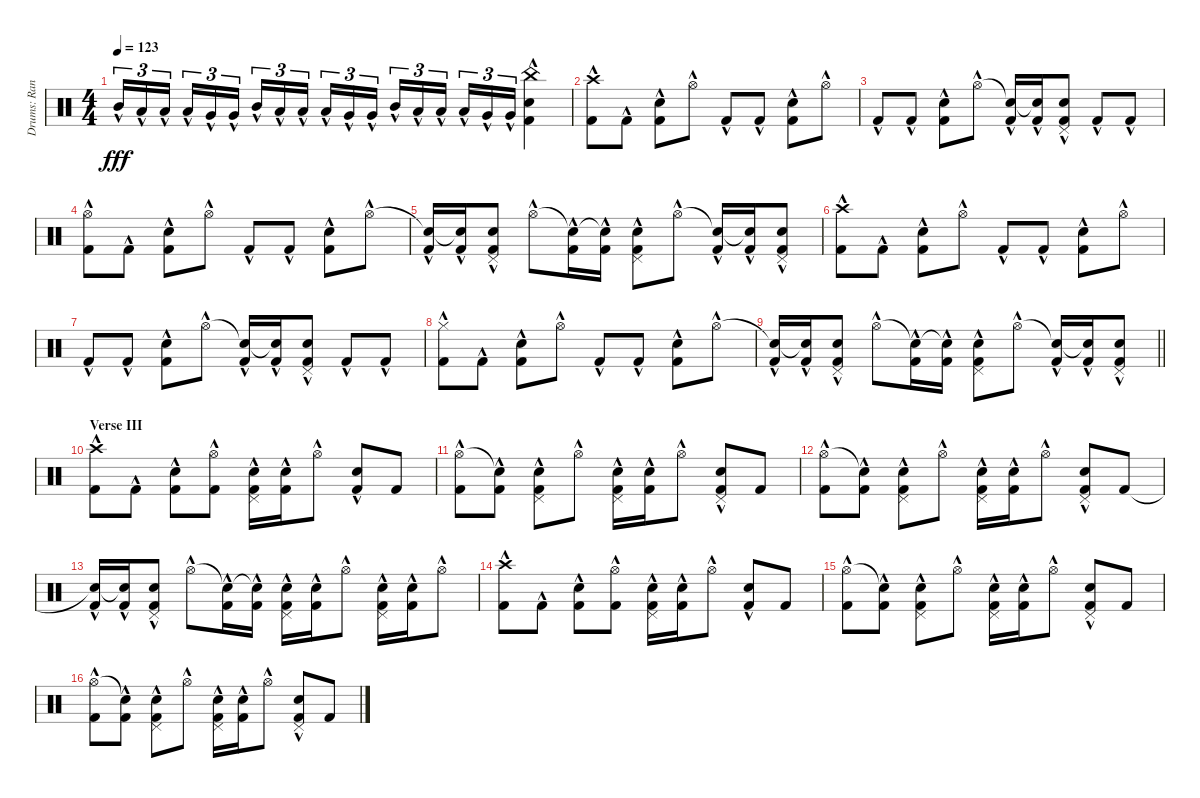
\track ("Drums: Randy" "Drums: Ran") {instrument percussion}
\staff {score}
\articulation defaults
\ts (4 4)
\tempo 123
\clef neutral
\ks c "Mid Tom (hit)"{hac}.16{tu (3 2) dy fff} "Low Tom (hit)"{hac}.16{tu (3 2)} "Low Tom (hit)"{hac}.16{tu (3 2) beam splitsecondary} "Low Tom (hit)"{hac}.16{tu (3 2)} "Very Low Tom (hit)"{hac}.16{tu (3 2)} "Very Low Tom (hit)"{hac}.16{tu (3 2)} "Mid Tom (hit)"{hac}.16{tu (3 2)} "Low Tom (hit)"{hac}.16{tu (3 2)} "Low Tom (hit)"{hac}.16{tu (3 2) beam splitsecondary} "Low Tom (hit)"{hac}.16{tu (3 2)} "Very Low Tom (hit)"{hac}.16{tu (3 2)} "Very Low Tom (hit)"{hac}.16{tu (3 2)} "Mid Tom (hit)"{hac}.16{tu (3 2)} "Low Tom (hit)"{hac}.16{tu (3 2)} "Low Tom (hit)"{hac}.16{tu (3 2) beam splitsecondary} "Low Tom (hit)"{hac}.16{tu (3 2)} "Very Low Tom (hit)"{hac}.16{tu (3 2)} "Very Low Tom (hit)"{hac}.16{tu (3 2)}
("China (hit)" "Snare (hit) 2"{hac} "Kick (hit) 2"{hac}).4 |
("Crash high (hit)"{hac} "Kick (hit) 2"{hac}).8 "Kick (hit) 2"{hac}.8 ("Snare (hit) 2"{hac} "Kick (hit) 2"{hac}).8 "Hi-Hat (open)"{hac}.8 "Kick (hit) 2"{hac}.8 "Kick (hit) 2"{hac}.8 ("Snare (hit) 2"{hac} "Kick (hit) 2"{hac}).8 "Hi-Hat (open)"{hac}.8 |
"Kick (hit) 2"{hac}.8 "Kick (hit) 2"{hac}.8 ("Snare (hit) 2"{hac} "Kick (hit) 2"{hac}).8 "Hi-Hat (open)"{hac}.8 ("Snare (hit)"{t} "Kick (hit) 2"{hac}).16 ("Snare (hit)"{t} "Kick (hit) 2"{hac}).16 ("Pedal Hi-Hat (hit)"{hac} "Snare (hit) 2"{hac} "Kick (hit) 2"{hac}).8 "Kick (hit) 2"{hac}.8 "Kick (hit) 2"{hac}.8 |
("Hi-Hat (open)" "Kick (hit) 2"{hac}).8 "Kick (hit) 2"{hac}.8 ("Snare (hit) 2"{hac} "Kick (hit) 2"{hac}).8 "Hi-Hat (open)"{hac}.8 "Kick (hit) 2"{hac}.8 "Kick (hit) 2"{hac}.8 ("Snare (hit) 2"{hac} "Kick (hit) 2"{hac}).8 "Hi-Hat (open)"{hac}.8 |
("Snare (hit)"{t} "Kick (hit) 2"{hac}).16 ("Snare (hit)"{t} "Kick (hit) 2"{hac}).16 ("Pedal Hi-Hat (hit)"{hac} "Snare (hit) 2"{hac} "Kick (hit) 2"{hac}).8 "Hi-Hat (open)"{hac}.8 ("Snare (hit)"{t} "Kick (hit) 2"{hac}).16 ("Snare (hit)"{t} "Kick (hit) 2"{hac}).16 ("Pedal Hi-Hat (hit)"{hac} "Snare (hit) 2"{hac} "Kick (hit) 2"{hac}).8 "Hi-Hat (open)"{hac}.8 ("Snare (hit)"{t} "Kick (hit) 2"{hac}).16 ("Snare (hit)"{t} "Kick (hit) 2"{hac}).16 ("Pedal Hi-Hat (hit)"{hac} "Snare (hit) 2"{hac} "Kick (hit) 2"{hac}).8 |
("Crash high (hit)"{hac} "Kick (hit) 2"{hac}).8 "Kick (hit) 2"{hac}.8 ("Snare (hit) 2"{hac} "Kick (hit) 2"{hac}).8 "Hi-Hat (open)"{hac}.8 "Kick (hit) 2"{hac}.8 "Kick (hit) 2"{hac}.8 ("Snare (hit) 2"{hac} "Kick (hit) 2"{hac}).8 "Hi-Hat (open)"{hac}.8 |
"Kick (hit) 2"{hac}.8 "Kick (hit) 2"{hac}.8 ("Snare (hit) 2"{hac} "Kick (hit) 2"{hac}).8 "Hi-Hat (open)"{hac}.8 ("Snare (hit)"{t} "Kick (hit) 2"{hac}).16 ("Snare (hit)"{t} "Kick (hit) 2"{hac}).16 ("Pedal Hi-Hat (hit)"{hac} "Snare (hit) 2"{hac} "Kick (hit) 2"{hac}).8 "Kick (hit) 2"{hac}.8 "Kick (hit) 2"{hac}.8 |
("Hi-Hat (closed)"{hac} "Kick (hit) 2"{hac}).8 "Kick (hit) 2"{hac}.8 ("Snare (hit) 2"{hac} "Kick (hit) 2"{hac}).8 "Hi-Hat (open)"{hac}.8 "Kick (hit) 2"{hac}.8 "Kick (hit) 2"{hac}.8 ("Snare (hit) 2"{hac} "Kick (hit) 2"{hac}).8 "Hi-Hat (open)"{hac}.8 |
\barLineRight lightlight
("Snare (hit)"{t} "Kick (hit) 2"{hac}).16 ("Snare (hit)"{t} "Kick (hit) 2"{hac}).16 ("Pedal Hi-Hat (hit)"{hac} "Snare (hit) 2"{hac} "Kick (hit) 2"{hac}).8 "Hi-Hat (open)"{hac}.8 ("Snare (hit)"{t} "Kick (hit) 2"{hac}).16 ("Snare (hit)"{t} "Kick (hit) 2"{hac}).16 ("Pedal Hi-Hat (hit)"{hac} "Snare (hit) 2"{hac} "Kick (hit) 2"{hac}).8 "Hi-Hat (open)"{hac}.8 ("Snare (hit)"{t} "Kick (hit) 2"{hac}).16 ("Snare (hit)"{t} "Kick (hit) 2"{hac}).16 ("Pedal Hi-Hat (hit)"{hac} "Snare (hit) 2"{hac} "Kick (hit) 2"{hac}).8 |
\section ("" "Verse III")
("Crash high (hit)"{hac} "Kick (hit) 2"{hac}).8 "Kick (hit) 2"{hac}.8 ("Snare (hit) 2"{hac} "Kick (hit) 2"{hac}).8 ("Hi-Hat (open)"{hac} "Kick (hit) 2").8 ("Pedal Hi-Hat (hit)" "Snare (hit) 2"{hac} "Kick (hit) 2"{hac}).16 ("Snare (hit) 2"{hac} "Kick (hit) 2"{hac}).16 "Hi-Hat (open)"{hac}.8 ("Snare (hit) 2"{hac} "Kick (hit) 2"{hac}).8 "Kick (hit) 2".8 |
("Hi-Hat (open)" "Kick (hit) 2"{hac}).8 ("Snare (hit)"{t} "Kick (hit) 2"{hac}).8 ("Pedal Hi-Hat (hit)" "Snare (hit) 2"{hac} "Kick (hit) 2"{hac}).8 "Hi-Hat (open)"{hac}.8 ("Pedal Hi-Hat (hit)" "Snare (hit) 2"{hac} "Kick (hit) 2"{hac}).16 ("Snare (hit) 2"{hac} "Kick (hit) 2"{hac}).16 "Hi-Hat (open)"{hac}.8 ("Pedal Hi-Hat (hit)" "Snare (hit) 2"{hac} "Kick (hit) 2"{hac}).8 "Kick (hit) 2".8 |
("Hi-Hat (open)" "Kick (hit) 2"{hac}).8 ("Snare (hit)"{t} "Kick (hit) 2"{hac}).8 ("Pedal Hi-Hat (hit)" "Snare (hit) 2"{hac} "Kick (hit) 2"{hac}).8 "Hi-Hat (open)"{hac}.8 ("Pedal Hi-Hat (hit)" "Snare (hit) 2"{hac} "Kick (hit) 2"{hac}).16 ("Snare (hit) 2"{hac} "Kick (hit) 2"{hac}).16 "Hi-Hat (open)"{hac}.8 ("Pedal Hi-Hat (hit)" "Snare (hit) 2"{hac} "Kick (hit) 2"{hac}).8 "Kick (hit) 2".8 |
("Snare (hit)"{t} "Kick (hit) 2"{hac}).16 ("Snare (hit)"{t} "Kick (hit) 2"{hac}).16 ("Pedal Hi-Hat (hit)"{hac} "Snare (hit) 2"{hac} "Kick (hit) 2"{hac}).8 "Hi-Hat (open)"{hac}.8 ("Snare (hit)"{t} "Kick (hit) 2"{hac}).16 ("Snare (hit)"{t} "Kick (hit) 2"{hac}).16 ("Pedal Hi-Hat (hit)" "Snare (hit) 2"{hac} "Kick (hit) 2"{hac}).16 ("Snare (hit) 2"{hac} "Kick (hit) 2"{hac}).16 "Hi-Hat (open)"{hac}.8 ("Pedal Hi-Hat (hit)" "Snare (hit) 2"{hac} "Kick (hit) 2"{hac}).16 ("Snare (hit) 2"{hac} "Kick (hit) 2"{hac}).16 "Hi-Hat (open)"{hac}.8 |
("Crash high (hit)"{hac} "Kick (hit) 2"{hac}).8 "Kick (hit) 2"{hac}.8 ("Snare (hit) 2"{hac} "Kick (hit) 2"{hac}).8 ("Hi-Hat (open)"{hac} "Kick (hit) 2").8 ("Pedal Hi-Hat (hit)" "Snare (hit) 2"{hac} "Kick (hit) 2"{hac}).16 ("Snare (hit) 2"{hac} "Kick (hit) 2"{hac}).16 "Hi-Hat (open)"{hac}.8 ("Snare (hit) 2"{hac} "Kick (hit) 2"{hac}).8 "Kick (hit) 2".8 |
("Hi-Hat (open)" "Kick (hit) 2"{hac}).8 ("Snare (hit)"{t} "Kick (hit) 2"{hac}).8 ("Pedal Hi-Hat (hit)" "Snare (hit) 2"{hac} "Kick (hit) 2"{hac}).8 "Hi-Hat (open)"{hac}.8 ("Pedal Hi-Hat (hit)" "Snare (hit) 2"{hac} "Kick (hit) 2"{hac}).16 ("Snare (hit) 2"{hac} "Kick (hit) 2"{hac}).16 "Hi-Hat (open)"{hac}.8 ("Pedal Hi-Hat (hit)" "Snare (hit) 2"{hac} "Kick (hit) 2"{hac}).8 "Kick (hit) 2".8 |
("Hi-Hat (open)" "Kick (hit) 2"{hac}).8 ("Snare (hit)"{t} "Kick (hit) 2"{hac}).8 ("Pedal Hi-Hat (hit)" "Snare (hit) 2"{hac} "Kick (hit) 2"{hac}).8 "Hi-Hat (open)"{hac}.8 ("Pedal Hi-Hat (hit)" "Snare (hit) 2"{hac} "Kick (hit) 2"{hac}).16 ("Snare (hit) 2"{hac} "Kick (hit) 2"{hac}).16 "Hi-Hat (open)"{hac}.8 ("Pedal Hi-Hat (hit)" "Snare (hit) 2"{hac} "Kick (hit) 2"{hac}).8 "Kick (hit) 2".8
